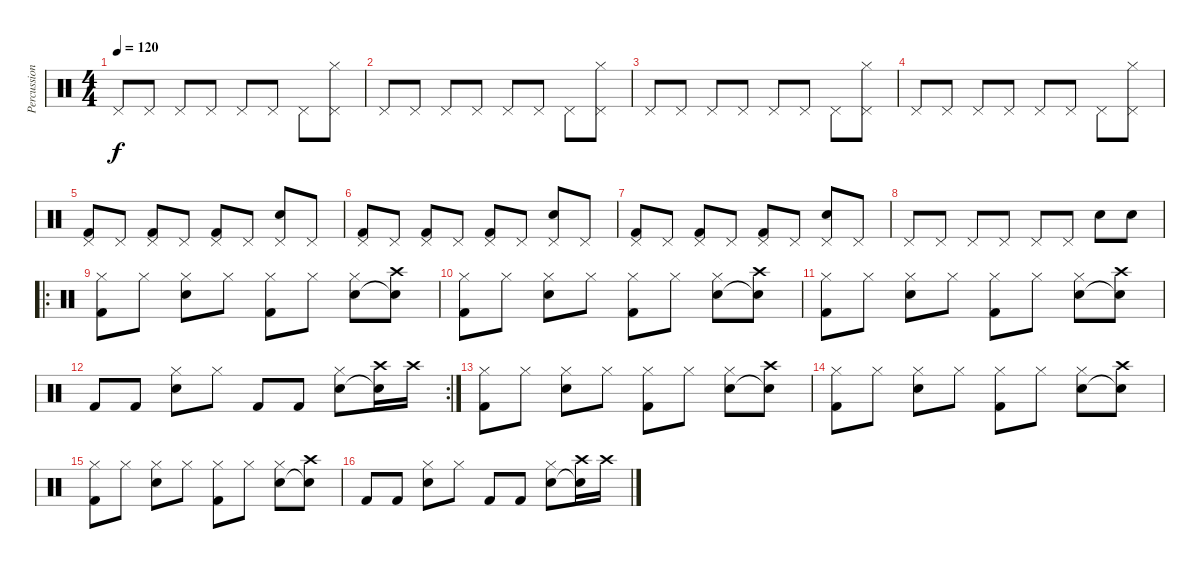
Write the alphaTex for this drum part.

\track ("Percussion" "Percussion") {instrument percussion}
\staff {score}
\articulation defaults
\ts (4 4)
\tempo 120
\clef neutral
\ks c "Pedal Hi-Hat (hit)".8{dy f} "Pedal Hi-Hat (hit)".8 "Pedal Hi-Hat (hit)".8 "Pedal Hi-Hat (hit)".8 "Pedal Hi-Hat (hit)".8 "Pedal Hi-Hat (hit)".8 "Pedal Hi-Hat (hit)".8
("Hi-Hat (closed)" "Pedal Hi-Hat (hit)").8 |
"Pedal Hi-Hat (hit)".8 "Pedal Hi-Hat (hit)".8 "Pedal Hi-Hat (hit)".8 "Pedal Hi-Hat (hit)".8 "Pedal Hi-Hat (hit)".8 "Pedal Hi-Hat (hit)".8 "Pedal Hi-Hat (hit)".8 ("Hi-Hat (closed)" "Pedal Hi-Hat (hit)").8 |
"Pedal Hi-Hat (hit)".8 "Pedal Hi-Hat (hit)".8 "Pedal Hi-Hat (hit)".8 "Pedal Hi-Hat (hit)".8 "Pedal Hi-Hat (hit)".8 "Pedal Hi-Hat (hit)".8 "Pedal Hi-Hat (hit)".8 ("Hi-Hat (closed)" "Pedal Hi-Hat (hit)").8 |
"Pedal Hi-Hat (hit)".8 "Pedal Hi-Hat (hit)".8 "Pedal Hi-Hat (hit)".8 "Pedal Hi-Hat (hit)".8 "Pedal Hi-Hat (hit)".8 "Pedal Hi-Hat (hit)".8 "Pedal Hi-Hat (hit)".8 ("Hi-Hat (closed)" "Pedal Hi-Hat (hit)").8 |
("Pedal Hi-Hat (hit)" "Kick (hit) 2").8 "Pedal Hi-Hat (hit)".8 ("Pedal Hi-Hat (hit)" "Kick (hit) 2").8 "Pedal Hi-Hat (hit)".8 ("Pedal Hi-Hat (hit)" "Kick (hit) 2").8 "Pedal Hi-Hat (hit)".8 ("Pedal Hi-Hat (hit)" "Electric Snare (hit)").8 "Pedal Hi-Hat (hit)".8 |
("Pedal Hi-Hat (hit)" "Kick (hit) 2").8 "Pedal Hi-Hat (hit)".8 ("Pedal Hi-Hat (hit)" "Kick (hit) 2").8 "Pedal Hi-Hat (hit)".8 ("Pedal Hi-Hat (hit)" "Kick (hit) 2").8 "Pedal Hi-Hat (hit)".8 ("Pedal Hi-Hat (hit)" "Electric Snare (hit)").8 "Pedal Hi-Hat (hit)".8 |
("Pedal Hi-Hat (hit)" "Kick (hit) 2").8 "Pedal Hi-Hat (hit)".8 ("Pedal Hi-Hat (hit)" "Kick (hit) 2").8 "Pedal Hi-Hat (hit)".8 ("Pedal Hi-Hat (hit)" "Kick (hit) 2").8 "Pedal Hi-Hat (hit)".8 ("Pedal Hi-Hat (hit)" "Electric Snare (hit)").8 "Pedal Hi-Hat (hit)".8 |
"Pedal Hi-Hat (hit)".8 "Pedal Hi-Hat (hit)".8 "Pedal Hi-Hat (hit)".8 "Pedal Hi-Hat (hit)".8 "Pedal Hi-Hat (hit)".8 "Pedal Hi-Hat (hit)".8 "Electric Snare (hit)".8 "Electric Snare (hit)".8 |
\ro
("Hi-Hat (closed)" "Kick (hit) 2").8 "Hi-Hat (closed)".8 ("Hi-Hat (closed)" "Electric Snare (hit)").8 "Hi-Hat (closed)".8 ("Hi-Hat (closed)" "Kick (hit) 2").8 "Hi-Hat (closed)".8 ("Hi-Hat (closed)" "Electric Snare (hit)").8 ("Crash high (hit)" "Electric Snare (hit)"{t}).8 |
("Hi-Hat (closed)" "Kick (hit) 2").8 "Hi-Hat (closed)".8 ("Hi-Hat (closed)" "Electric Snare (hit)").8 "Hi-Hat (closed)".8 ("Hi-Hat (closed)" "Kick (hit) 2").8 "Hi-Hat (closed)".8 ("Hi-Hat (closed)" "Electric Snare (hit)").8 ("Crash high (hit)" "Electric Snare (hit)"{t}).8 |
("Hi-Hat (closed)" "Kick (hit) 2").8 "Hi-Hat (closed)".8 ("Hi-Hat (closed)" "Electric Snare (hit)").8 "Hi-Hat (closed)".8 ("Hi-Hat (closed)" "Kick (hit) 2").8 "Hi-Hat (closed)".8 ("Hi-Hat (closed)" "Electric Snare (hit)").8 ("Crash high (hit)" "Electric Snare (hit)"{t}).8 |
\rc 2 "Kick (hit) 2".8 "Kick (hit) 2".8
("Hi-Hat (closed)" "Electric Snare (hit)").8 "Hi-Hat (closed)".8 "Kick (hit) 2".8 "Kick (hit) 2".8 ("Hi-Hat (closed)" "Electric Snare (hit)").8 ("Crash high (hit)" "Electric Snare (hit)"{t}).16 "Crash high (hit)".16 |
("Hi-Hat (closed)" "Kick (hit) 2").8 "Hi-Hat (closed)".8 ("Hi-Hat (closed)" "Electric Snare (hit)").8 "Hi-Hat (closed)".8 ("Hi-Hat (closed)" "Kick (hit) 2").8 "Hi-Hat (closed)".8 ("Hi-Hat (closed)" "Electric Snare (hit)").8 ("Crash high (hit)" "Electric Snare (hit)"{t}).8 |
("Hi-Hat (closed)" "Kick (hit) 2").8 "Hi-Hat (closed)".8 ("Hi-Hat (closed)" "Electric Snare (hit)").8 "Hi-Hat (closed)".8 ("Hi-Hat (closed)" "Kick (hit) 2").8 "Hi-Hat (closed)".8 ("Hi-Hat (closed)" "Electric Snare (hit)").8 ("Crash high (hit)" "Electric Snare (hit)"{t}).8 |
("Hi-Hat (closed)" "Kick (hit) 2").8 "Hi-Hat (closed)".8 ("Hi-Hat (closed)" "Electric Snare (hit)").8 "Hi-Hat (closed)".8 ("Hi-Hat (closed)" "Kick (hit) 2").8 "Hi-Hat (closed)".8 ("Hi-Hat (closed)" "Electric Snare (hit)").8 ("Crash high (hit)" "Electric Snare (hit)"{t}).8 |
"Kick (hit) 2".8 "Kick (hit) 2".8 ("Hi-Hat (closed)" "Electric Snare (hit)").8 "Hi-Hat (closed)".8 "Kick (hit) 2".8 "Kick (hit) 2".8 ("Hi-Hat (closed)" "Electric Snare (hit)").8 ("Crash high (hit)" "Electric Snare (hit)"{t}).16 "Crash high (hit)".16
